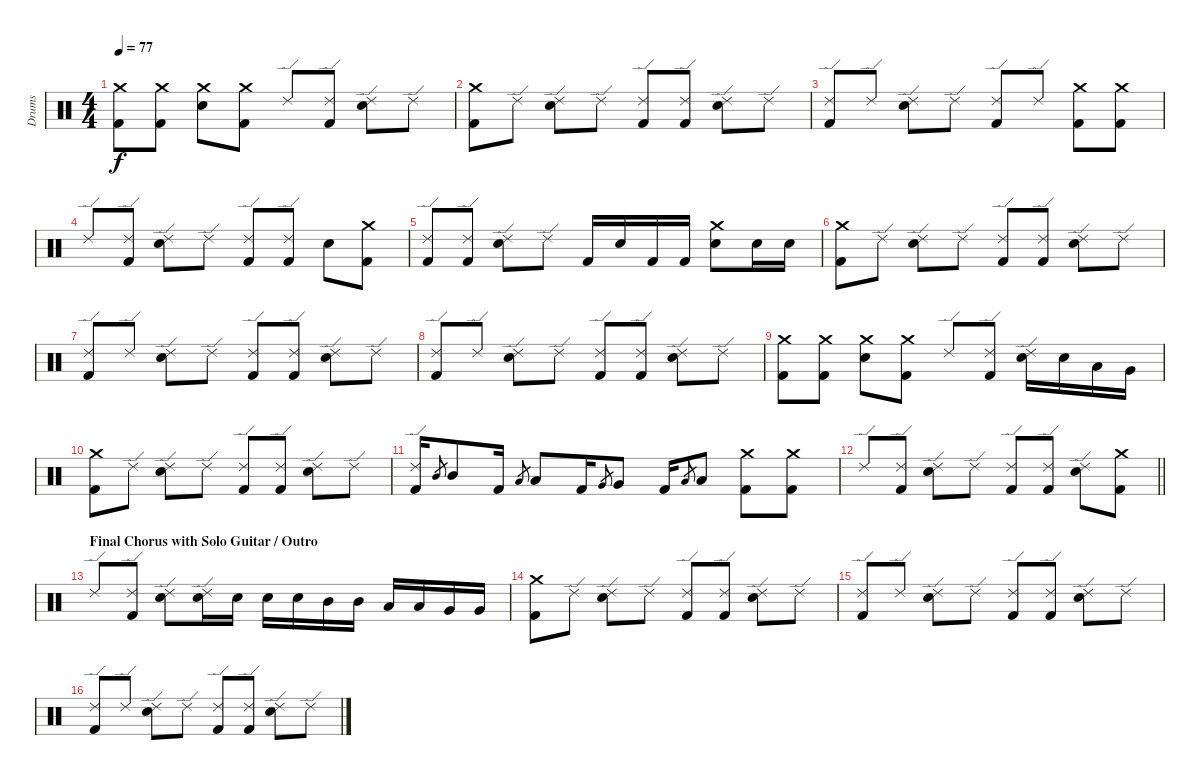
\track ("Drums" "Drums") {instrument percussion}
\staff {score}
\articulation defaults
\ts (4 4)
\tempo 77
\clef neutral
\ks c
("Crash medium (hit)" "Kick (hit) 2").8{dy f} ("Crash medium (hit)" "Kick (hit) 2").8 ("Crash medium (hit)" "Electric Snare (hit)").8 ("Crash medium (hit)" "Kick (hit) 2").8 "Ride (edge) 2".8 ("Ride (edge) 2" "Kick (hit) 2").8 ("Ride (edge) 2" "Electric Snare (hit)").8 "Ride (edge) 2".8 |
("Crash medium (hit)" "Kick (hit) 2").8 "Ride (edge) 2".8 ("Ride (edge) 2" "Electric Snare (hit)").8 "Ride (edge) 2".8 ("Ride (edge) 2" "Kick (hit) 2").8 ("Ride (edge) 2" "Kick (hit) 2").8 ("Ride (edge) 2" "Electric Snare (hit)").8 "Ride (edge) 2".8 |
("Ride (edge) 2" "Kick (hit) 2").8 "Ride (edge) 2".8 ("Ride (edge) 2" "Electric Snare (hit)").8 "Ride (edge) 2".8 ("Ride (edge) 2" "Kick (hit) 2").8 "Ride (edge) 2".8 ("Crash medium (hit)" "Kick (hit) 2").8 ("Crash medium (hit)" "Kick (hit) 2").8 |
"Ride (edge) 2".8 ("Ride (edge) 2" "Kick (hit) 2").8 ("Ride (edge) 2" "Electric Snare (hit)").8 "Ride (edge) 2".8 ("Ride (edge) 2" "Kick (hit) 2").8 ("Ride (edge) 2" "Kick (hit) 2").8 "Electric Snare (hit)".8 ("Crash medium (hit)" "Kick (hit) 2").8 |
("Ride (edge) 2" "Kick (hit) 2").8 ("Ride (edge) 2" "Kick (hit) 2").8 ("Ride (edge) 2" "Electric Snare (hit)").8 "Ride (edge) 2".8 "Kick (hit) 2".16 "Electric Snare (hit)".16 "Kick (hit) 2".16 "Kick (hit) 2".16 ("Crash medium (hit)" "Electric Snare (hit)").8 "Electric Snare (hit)".16 "Electric Snare (hit)".16 |
("Crash medium (hit)" "Kick (hit) 2").8 "Ride (edge) 2".8 ("Ride (edge) 2" "Electric Snare (hit)").8 "Ride (edge) 2".8 ("Ride (edge) 2" "Kick (hit) 2").8 ("Ride (edge) 2" "Kick (hit) 2").8 ("Ride (edge) 2" "Electric Snare (hit)").8 "Ride (edge) 2".8 |
("Ride (edge) 2" "Kick (hit) 2").8 "Ride (edge) 2".8 ("Ride (edge) 2" "Electric Snare (hit)").8 "Ride (edge) 2".8 ("Ride (edge) 2" "Kick (hit) 2").8 ("Ride (edge) 2" "Kick (hit) 2").8 ("Ride (edge) 2" "Electric Snare (hit)").8 "Ride (edge) 2".8 |
("Ride (edge) 2" "Kick (hit) 2").8 "Ride (edge) 2".8 ("Ride (edge) 2" "Electric Snare (hit)").8 "Ride (edge) 2".8 ("Ride (edge) 2" "Kick (hit) 2").8 ("Ride (edge) 2" "Kick (hit) 2").8 ("Ride (edge) 2" "Electric Snare (hit)").8 "Ride (edge) 2".8 |
("Crash medium (hit)" "Kick (hit) 2").8 ("Crash medium (hit)" "Kick (hit) 2").8 ("Crash medium (hit)" "Electric Snare (hit)").8 ("Crash medium (hit)" "Kick (hit) 2").8 "Ride (edge) 2".8 ("Ride (edge) 2" "Kick (hit) 2").8 ("Ride (edge) 2" "Electric Snare (hit)").16 "Electric Snare (hit)".16 "Low Tom (hit)".16 "Very Low Tom (hit)".16 |
("Crash medium (hit)" "Kick (hit) 2").8 "Ride (edge) 2".8 ("Ride (edge) 2" "Electric Snare (hit)").8 "Ride (edge) 2".8 ("Ride (edge) 2" "Kick (hit) 2").8 ("Ride (edge) 2" "Kick (hit) 2").8 ("Ride (edge) 2" "Electric Snare (hit)").8 "Ride (edge) 2".8 |
("Ride (edge) 2" "Kick (hit) 2").16 "Mid Tom (hit)".8{gr} "Mid Tom (hit)".8 "Kick (hit) 2".16 "Low Tom (hit)".8{gr} "Low Tom (hit)".8 "Kick (hit) 2".16 "Very Low Tom (hit)".8{gr} "Very Low Tom (hit)".8 "Kick (hit) 2".16 "Low Floor Tom (hit)".8{gr} "Low Floor Tom (hit)".8 ("Crash medium (hit)" "Kick (hit) 2").8 ("Crash medium (hit)" "Kick (hit) 2").8 |
\barLineRight lightlight "Ride (edge) 2".8
("Ride (edge) 2" "Kick (hit) 2").8 ("Ride (edge) 2" "Electric Snare (hit)").8 "Ride (edge) 2".8 ("Ride (edge) 2" "Kick (hit) 2").8 ("Ride (edge) 2" "Kick (hit) 2").8 ("Ride (edge) 2" "Electric Snare (hit)").8 ("Crash medium (hit)" "Kick (hit) 2").8 |
\section ("" "Final Chorus with Solo Guitar / Outro")
"Ride (edge) 2".8 ("Ride (edge) 2" "Kick (hit) 2").8 ("Ride (edge) 2" "Electric Snare (hit)").8 ("Ride (edge) 2" "Electric Snare (hit)").16 "Electric Snare (hit)".16 "Electric Snare (hit)".16 "Electric Snare (hit)".16 "Mid Tom (hit)".16 "Mid Tom (hit)".16 "Low Tom (hit)".16 "Low Tom (hit)".16 "Very Low Tom (hit)".16 "Very Low Tom (hit)".16 |
("Crash medium (hit)" "Kick (hit) 2").8 "Ride (edge) 2".8 ("Ride (edge) 2" "Electric Snare (hit)").8 "Ride (edge) 2".8 ("Ride (edge) 2" "Kick (hit) 2").8 ("Ride (edge) 2" "Kick (hit) 2").8 ("Ride (edge) 2" "Electric Snare (hit)").8 "Ride (edge) 2".8 |
("Ride (edge) 2" "Kick (hit) 2").8 "Ride (edge) 2".8 ("Ride (edge) 2" "Electric Snare (hit)").8 "Ride (edge) 2".8 ("Ride (edge) 2" "Kick (hit) 2").8 ("Ride (edge) 2" "Kick (hit) 2").8 ("Ride (edge) 2" "Electric Snare (hit)").8 "Ride (edge) 2".8 |
("Ride (edge) 2" "Kick (hit) 2").8{volume 0} "Ride (edge) 2".8 ("Ride (edge) 2" "Electric Snare (hit)").8 "Ride (edge) 2".8 ("Ride (edge) 2" "Kick (hit) 2").8 ("Ride (edge) 2" "Kick (hit) 2").8 ("Ride (edge) 2" "Electric Snare (hit)").8 "Ride (edge) 2".8
